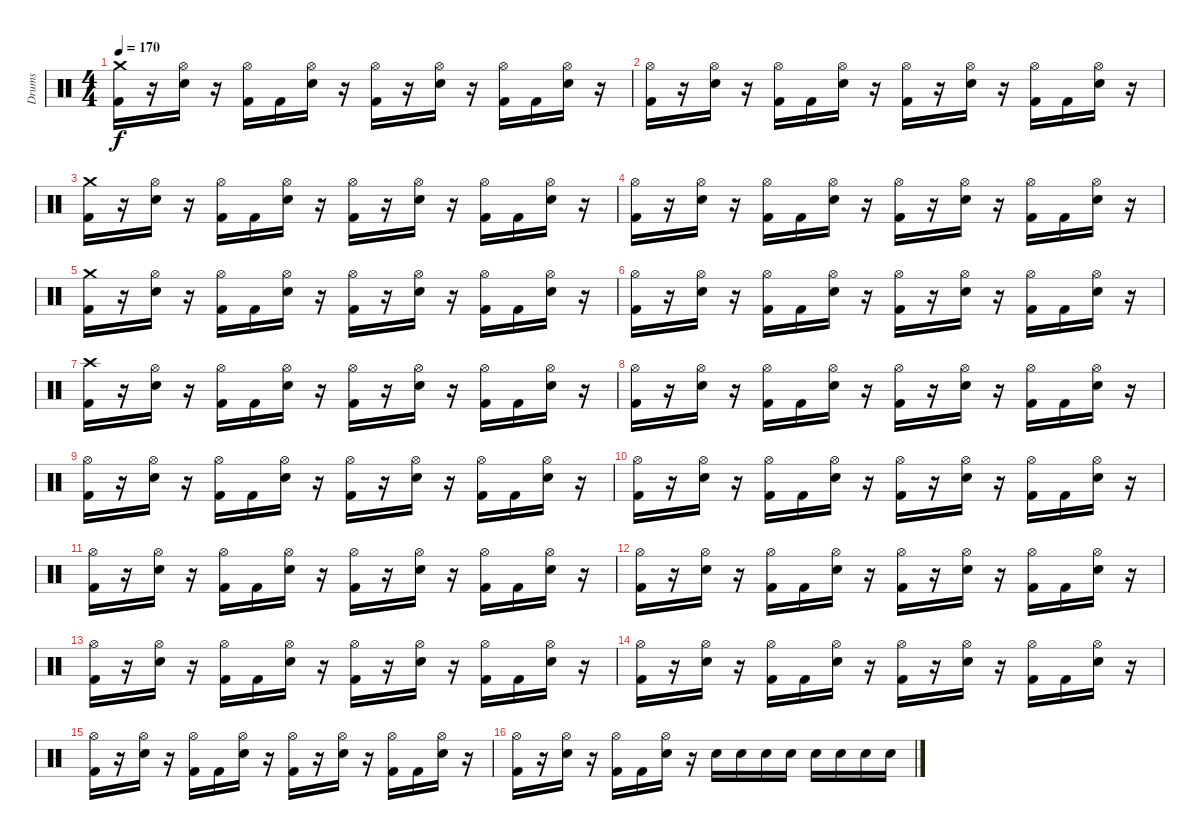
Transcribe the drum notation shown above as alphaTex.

\track ("Drums" "Drums") {instrument percussion}
\staff {score}
\articulation defaults
\ts (4 4)
\tempo 170
\clef neutral
\ks c
("Crash medium (hit)" "Kick (hit) 2").16{dy f} r.16 ("Hi-Hat (open)" "Snare (hit) 2").16 r.16 ("Hi-Hat (open)" "Kick (hit) 2").16 "Kick (hit) 2".16 ("Hi-Hat (open)" "Snare (hit) 2").16 r.16 ("Hi-Hat (open)" "Kick (hit) 2").16 r.16 ("Hi-Hat (open)" "Snare (hit) 2").16 r.16 ("Hi-Hat (open)" "Kick (hit) 2").16 "Kick (hit) 2".16 ("Hi-Hat (open)" "Snare (hit) 2").16 r.16 |
("Hi-Hat (open)" "Kick (hit) 2").16 r.16 ("Hi-Hat (open)" "Snare (hit) 2").16 r.16 ("Hi-Hat (open)" "Kick (hit) 2").16 "Kick (hit) 2".16 ("Hi-Hat (open)" "Snare (hit) 2").16 r.16 ("Hi-Hat (open)" "Kick (hit) 2").16 r.16 ("Hi-Hat (open)" "Snare (hit) 2").16 r.16 ("Hi-Hat (open)" "Kick (hit) 2").16 "Kick (hit) 2".16 ("Hi-Hat (open)" "Snare (hit) 2").16 r.16 |
("Crash medium (hit)" "Kick (hit) 2").16 r.16 ("Hi-Hat (open)" "Snare (hit) 2").16 r.16 ("Hi-Hat (open)" "Kick (hit) 2").16 "Kick (hit) 2".16 ("Hi-Hat (open)" "Snare (hit) 2").16 r.16 ("Hi-Hat (open)" "Kick (hit) 2").16 r.16 ("Hi-Hat (open)" "Snare (hit) 2").16 r.16 ("Hi-Hat (open)" "Kick (hit) 2").16 "Kick (hit) 2".16 ("Hi-Hat (open)" "Snare (hit) 2").16 r.16 |
("Hi-Hat (open)" "Kick (hit) 2").16 r.16 ("Hi-Hat (open)" "Snare (hit) 2").16 r.16 ("Hi-Hat (open)" "Kick (hit) 2").16 "Kick (hit) 2".16 ("Hi-Hat (open)" "Snare (hit) 2").16 r.16 ("Hi-Hat (open)" "Kick (hit) 2").16 r.16 ("Hi-Hat (open)" "Snare (hit) 2").16 r.16 ("Hi-Hat (open)" "Kick (hit) 2").16 "Kick (hit) 2".16 ("Hi-Hat (open)" "Snare (hit) 2").16 r.16 |
("Crash medium (hit)" "Kick (hit) 2").16 r.16 ("Hi-Hat (open)" "Snare (hit) 2").16 r.16 ("Hi-Hat (open)" "Kick (hit) 2").16 "Kick (hit) 2".16 ("Hi-Hat (open)" "Snare (hit) 2").16 r.16 ("Hi-Hat (open)" "Kick (hit) 2").16 r.16 ("Hi-Hat (open)" "Snare (hit) 2").16 r.16 ("Hi-Hat (open)" "Kick (hit) 2").16 "Kick (hit) 2".16 ("Hi-Hat (open)" "Snare (hit) 2").16 r.16 |
("Hi-Hat (open)" "Kick (hit) 2").16 r.16 ("Hi-Hat (open)" "Snare (hit) 2").16 r.16 ("Hi-Hat (open)" "Kick (hit) 2").16 "Kick (hit) 2".16 ("Hi-Hat (open)" "Snare (hit) 2").16 r.16 ("Hi-Hat (open)" "Kick (hit) 2").16 r.16 ("Hi-Hat (open)" "Snare (hit) 2").16 r.16 ("Hi-Hat (open)" "Kick (hit) 2").16 "Kick (hit) 2".16 ("Hi-Hat (open)" "Snare (hit) 2").16 r.16 |
("Crash high (hit)" "Kick (hit) 2").16 r.16 ("Hi-Hat (open)" "Snare (hit) 2").16 r.16 ("Hi-Hat (open)" "Kick (hit) 2").16 "Kick (hit) 2".16 ("Hi-Hat (open)" "Snare (hit) 2").16 r.16 ("Hi-Hat (open)" "Kick (hit) 2").16 r.16 ("Hi-Hat (open)" "Snare (hit) 2").16 r.16 ("Hi-Hat (open)" "Kick (hit) 2").16 "Kick (hit) 2".16 ("Hi-Hat (open)" "Snare (hit) 2").16 r.16 |
("Hi-Hat (open)" "Kick (hit) 2").16 r.16 ("Hi-Hat (open)" "Snare (hit) 2").16 r.16 ("Hi-Hat (open)" "Kick (hit) 2").16 "Kick (hit) 2".16 ("Hi-Hat (open)" "Snare (hit) 2").16 r.16 ("Hi-Hat (open)" "Kick (hit) 2").16 r.16 ("Hi-Hat (open)" "Snare (hit) 2").16 r.16 ("Hi-Hat (open)" "Kick (hit) 2").16 "Kick (hit) 2".16 ("Hi-Hat (open)" "Snare (hit) 2").16 r.16 |
("Hi-Hat (open)" "Kick (hit) 2").16 r.16 ("Hi-Hat (open)" "Snare (hit) 2").16 r.16 ("Hi-Hat (open)" "Kick (hit) 2").16 "Kick (hit) 2".16 ("Hi-Hat (open)" "Snare (hit) 2").16 r.16 ("Hi-Hat (open)" "Kick (hit) 2").16 r.16 ("Hi-Hat (open)" "Snare (hit) 2").16 r.16 ("Hi-Hat (open)" "Kick (hit) 2").16 "Kick (hit) 2".16 ("Hi-Hat (open)" "Snare (hit) 2").16 r.16 |
("Hi-Hat (open)" "Kick (hit) 2").16 r.16 ("Hi-Hat (open)" "Snare (hit) 2").16 r.16 ("Hi-Hat (open)" "Kick (hit) 2").16 "Kick (hit) 2".16 ("Hi-Hat (open)" "Snare (hit) 2").16 r.16 ("Hi-Hat (open)" "Kick (hit) 2").16 r.16 ("Hi-Hat (open)" "Snare (hit) 2").16 r.16 ("Hi-Hat (open)" "Kick (hit) 2").16 "Kick (hit) 2".16 ("Hi-Hat (open)" "Snare (hit) 2").16 r.16 |
("Hi-Hat (open)" "Kick (hit) 2").16 r.16 ("Hi-Hat (open)" "Snare (hit) 2").16 r.16 ("Hi-Hat (open)" "Kick (hit) 2").16 "Kick (hit) 2".16 ("Hi-Hat (open)" "Snare (hit) 2").16 r.16 ("Hi-Hat (open)" "Kick (hit) 2").16 r.16 ("Hi-Hat (open)" "Snare (hit) 2").16 r.16 ("Hi-Hat (open)" "Kick (hit) 2").16 "Kick (hit) 2".16 ("Hi-Hat (open)" "Snare (hit) 2").16 r.16 |
("Hi-Hat (open)" "Kick (hit) 2").16 r.16 ("Hi-Hat (open)" "Snare (hit) 2").16 r.16 ("Hi-Hat (open)" "Kick (hit) 2").16 "Kick (hit) 2".16 ("Hi-Hat (open)" "Snare (hit) 2").16 r.16 ("Hi-Hat (open)" "Kick (hit) 2").16 r.16 ("Hi-Hat (open)" "Snare (hit) 2").16 r.16 ("Hi-Hat (open)" "Kick (hit) 2").16 "Kick (hit) 2".16 ("Hi-Hat (open)" "Snare (hit) 2").16 r.16 |
("Hi-Hat (open)" "Kick (hit) 2").16 r.16 ("Hi-Hat (open)" "Snare (hit) 2").16 r.16 ("Hi-Hat (open)" "Kick (hit) 2").16 "Kick (hit) 2".16 ("Hi-Hat (open)" "Snare (hit) 2").16 r.16 ("Hi-Hat (open)" "Kick (hit) 2").16 r.16 ("Hi-Hat (open)" "Snare (hit) 2").16 r.16 ("Hi-Hat (open)" "Kick (hit) 2").16 "Kick (hit) 2".16 ("Hi-Hat (open)" "Snare (hit) 2").16 r.16 |
("Hi-Hat (open)" "Kick (hit) 2").16 r.16 ("Hi-Hat (open)" "Snare (hit) 2").16 r.16 ("Hi-Hat (open)" "Kick (hit) 2").16 "Kick (hit) 2".16 ("Hi-Hat (open)" "Snare (hit) 2").16 r.16 ("Hi-Hat (open)" "Kick (hit) 2").16 r.16 ("Hi-Hat (open)" "Snare (hit) 2").16 r.16 ("Hi-Hat (open)" "Kick (hit) 2").16 "Kick (hit) 2".16 ("Hi-Hat (open)" "Snare (hit) 2").16 r.16 |
("Hi-Hat (open)" "Kick (hit) 2").16 r.16 ("Hi-Hat (open)" "Snare (hit) 2").16 r.16 ("Hi-Hat (open)" "Kick (hit) 2").16 "Kick (hit) 2".16 ("Hi-Hat (open)" "Snare (hit) 2").16 r.16 ("Hi-Hat (open)" "Kick (hit) 2").16 r.16 ("Hi-Hat (open)" "Snare (hit) 2").16 r.16 ("Hi-Hat (open)" "Kick (hit) 2").16 "Kick (hit) 2".16 ("Hi-Hat (open)" "Snare (hit) 2").16 r.16 |
("Hi-Hat (open)" "Kick (hit) 2").16 r.16 ("Hi-Hat (open)" "Snare (hit) 2").16 r.16 ("Hi-Hat (open)" "Kick (hit) 2").16 "Kick (hit) 2".16 ("Hi-Hat (open)" "Snare (hit) 2").16 r.16 "Snare (hit) 2".16 "Snare (hit) 2".16 "Snare (hit) 2".16 "Snare (hit) 2".16 "Snare (hit) 2".16 "Snare (hit) 2".16 "Snare (hit) 2".16 "Snare (hit) 2".16
